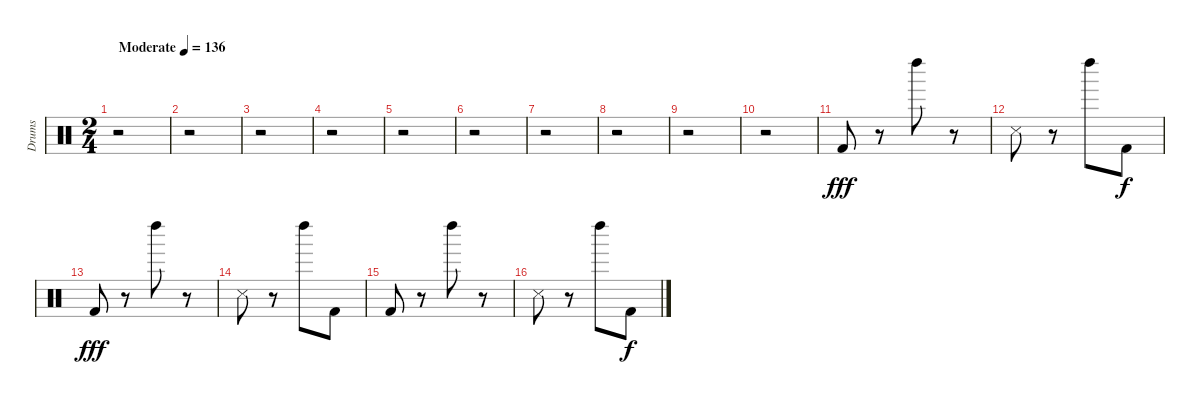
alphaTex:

\track ("Drums" "Drums") {instrument percussion}
\staff {score}
\articulation defaults
\ts (2 4)
\tempo (136 "Moderate")
\clef neutral
\ks c
r.2{dy fff} |
r.2 |
r.2 |
r.2 |
r.2 |
r.2 |
r.2 |
r.2 |
r.2 |
r.2 |
"Kick (hit) 2".8 r.8 "Left Maraca (hit)".8 r.8 |
"Snare (side stick) 3".8 r.8 "Left Maraca (hit)".8 "Kick (hit) 2".8{dy f} |
"Kick (hit) 2".8{dy fff} r.8 "Left Maraca (hit)".8 r.8 |
"Snare (side stick) 3".8 r.8 "Left Maraca (hit)".8 "Kick (hit) 2".8 |
"Kick (hit) 2".8 r.8 "Left Maraca (hit)".8 r.8 |
"Snare (side stick) 3".8 r.8 "Left Maraca (hit)".8 "Kick (hit) 2".8{dy f}
